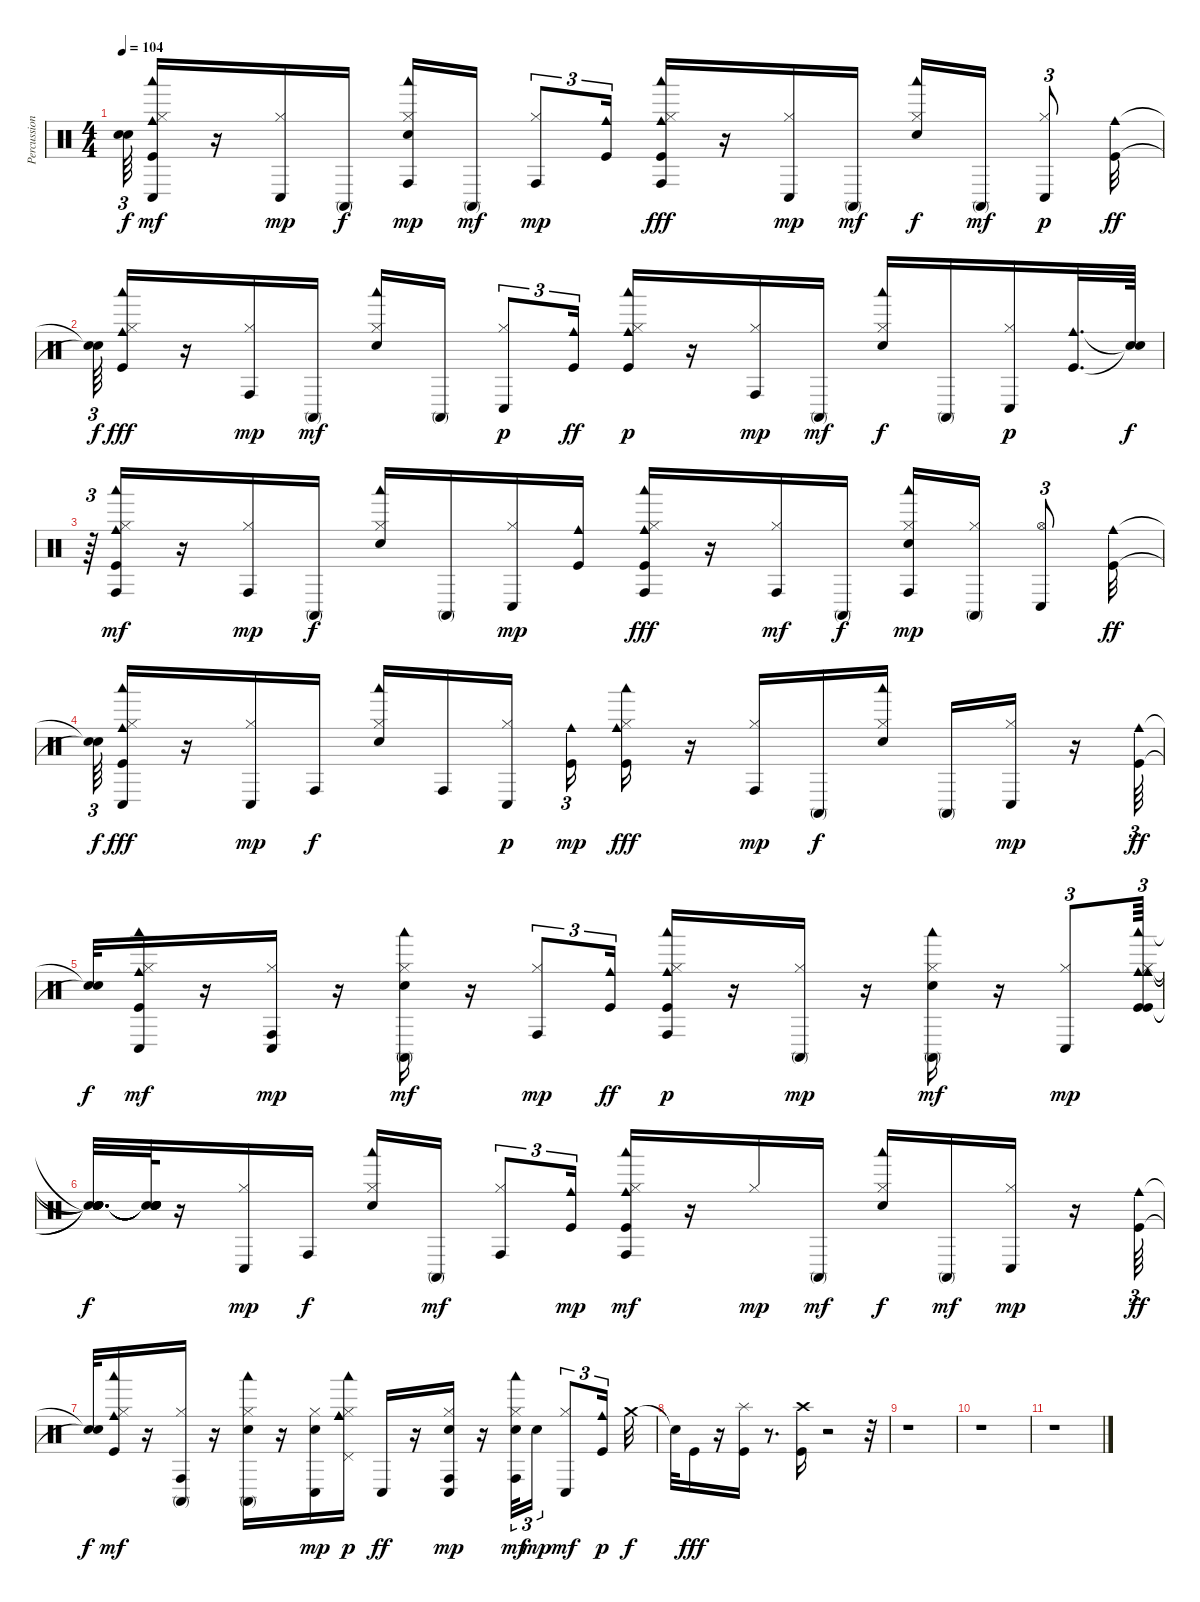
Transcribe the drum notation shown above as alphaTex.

\track ("Percussions (drums + hihats)" "Percussion") {instrument percussion}
\staff {score}
\articulation defaults
\ts (4 4)
\tempo 104
\clef neutral
\ks c
("Snare (hit)"{t} "Snare (hit)"{t}).64{tu (3 2) dy f} ("Cowbell medium (hit)" "Kick (hit)" "Woodblock low (hit)" "Hi-Hat (closed)" "Conga low (hit)").16{dy mf} r.16 ("Hi-Hat (closed)" "Conga low (hit)").16{dy mp} "Conga high (mute)".16{dy f} ("Woodblock low (hit)" "Conga high (hit)" "Electric Snare (hit)" "Hi-Hat (closed)").16{dy mp} "Conga high (mute)".16{dy mf} ("Conga high (hit)" "Hi-Hat (closed)").8{tu (3 2) dy mp} ("Kick (hit)" "Cowbell medium (hit)").16{tu (3 2)} ("Conga high (hit)" "Woodblock low (hit)" "Cowbell medium (hit)" "Hi-Hat (closed)" "Kick (hit)").16{dy fff} r.16 ("Conga low (hit)" "Hi-Hat (closed)").16{dy mp} "Conga high (mute)".16{dy mf} ("Hi-Hat (closed)" "Woodblock low (hit)" "Electric Snare (hit)").16{dy f} "Conga high (mute)".16{dy mf} ("Hi-Hat (closed)" "Conga low (hit)").8{tu (3 2) dy p} ("Cowbell medium (hit)" "Kick (hit)").32{dy ff} |
("Snare (hit)"{t} "Snare (hit)"{t}).64{tu (3 2) dy f} ("Cowbell medium (hit)" "Woodblock low (hit)" "Hi-Hat (closed)" "Kick (hit)").16{dy fff} r.16 ("Hi-Hat (closed)" "Conga high (hit)").16{dy mp} "Conga high (mute)".16{dy mf} ("Woodblock low (hit)" "Electric Snare (hit)" "Hi-Hat (closed)").16 "Conga high (mute)".16 ("Conga low (hit)" "Hi-Hat (closed)").8{tu (3 2) dy p} ("Cowbell medium (hit)" "Kick (hit)").16{tu (3 2) dy ff} ("Hi-Hat (closed)" "Woodblock low (hit)" "Kick (hit)" "Cowbell medium (hit)").16{dy p} r.16 ("Hi-Hat (closed)" "Conga high (hit)").16{dy mp} "Conga high (mute)".16{dy mf} ("Woodblock low (hit)" "Hi-Hat (closed)" "Electric Snare (hit)").16{dy f} "Conga high (mute)".16 ("Hi-Hat (closed)" "Conga low (hit)").16{dy p} ("Kick (hit)" "Cowbell medium (hit)").32{d} ("Snare (hit)"{t} "Snare (hit)"{t}).64{dy f} |
r.64{tu (3 2)} ("Woodblock low (hit)" "Kick (hit)" "Cowbell medium (hit)" "Hi-Hat (closed)" "Conga high (hit)").16{dy mf} r.16 ("Hi-Hat (closed)" "Conga high (hit)").16{dy mp} "Conga high (mute)".16{dy f} ("Hi-Hat (closed)" "Electric Snare (hit)" "Woodblock low (hit)").16 "Conga high (mute)".16 ("Hi-Hat (closed)" "Conga low (hit)").16{dy mp} ("Kick (hit)" "Cowbell medium (hit)").16 ("Hi-Hat (closed)" "Cowbell medium (hit)" "Kick (hit)" "Conga high (hit)" "Woodblock low (hit)").16{dy fff} r.16 ("Hi-Hat (closed)" "Conga high (hit)").16{dy mf} "Conga high (mute)".16{dy f} ("Electric Snare (hit)" "Woodblock low (hit)" "Conga high (hit)" "Hi-Hat (closed)").16{dy mp} ("Conga high (mute)" "Hi-Hat (closed)").16 ("Hi-Hat (open)" "Conga low (hit)").8{tu (3 2)} ("Cowbell medium (hit)" "Kick (hit)").32{dy ff} |
("Snare (hit)"{t} "Snare (hit)"{t}).64{tu (3 2) dy f} ("Hi-Hat (closed)" "Cowbell medium (hit)" "Kick (hit)" "Conga low (hit)" "Woodblock low (hit)").16{dy fff} r.16 ("Hi-Hat (closed)" "Conga low (hit)").16{dy mp} "Conga high (hit)".16{dy f} ("Electric Snare (hit)" "Woodblock low (hit)" "Hi-Hat (closed)").16 "Conga high (hit)".16 ("Hi-Hat (closed)" "Conga low (hit)").16{dy p} ("Kick (hit)" "Cowbell medium (hit)").16{tu (3 2) dy mp} ("Cowbell medium (hit)" "Hi-Hat (closed)" "Woodblock low (hit)" "Kick (hit)").16{dy fff} r.16 ("Hi-Hat (closed)" "Conga high (hit)").16{dy mp} "Conga high (mute)".16{dy f} ("Woodblock low (hit)" "Electric Snare (hit)" "Hi-Hat (closed)").16 "Conga high (mute)".16 ("Hi-Hat (closed)" "Conga low (hit)").16{dy mp} r.16 ("Cowbell medium (hit)" "Kick (hit)").64{tu (3 2) dy ff} |
("Snare (hit)"{t} "Snare (hit)"{t}).32{dy f} ("Cowbell medium (hit)" "Kick (hit)" "Woodblock low (hit)" "Hi-Hat (closed)" "Conga low (hit)").16{dy mf} r.16 ("Conga low (hit)" "Hi-Hat (closed)" "Conga high (hit)").16{dy mp} r.16 ("Hi-Hat (closed)" "Electric Snare (hit)" "Woodblock low (hit)" "Conga high (mute)").16{dy mf} r.16 ("Conga high (hit)" "Hi-Hat (closed)").8{tu (3 2) dy mp} ("Cowbell medium (hit)" "Kick (hit)").16{tu (3 2) dy ff} ("Woodblock low (hit)" "Kick (hit)" "Conga high (hit)" "Hi-Hat (closed)" "Cowbell medium (hit)").16{dy p} r.16 ("Hi-Hat (closed)" "Conga high (mute)").16{dy mp} r.16 ("Electric Snare (hit)" "Hi-Hat (closed)" "Woodblock low (hit)" "Conga high (mute)").16{dy mf} r.16 ("Conga low (hit)" "Hi-Hat (closed)").8{tu (3 2) dy mp} ("Kick (hit)" "Cowbell medium (hit)" "Woodblock low (hit)" "Kick (hit)" "Hi-Hat (closed)" "Cowbell medium (hit)").64{tu (3 2)} |
("Snare (hit)"{t} "Snare (hit)"{t} "Snare (hit)"{t} "Snare (hit)"{t} "Snare (hit)"{t} "Snare (hit)"{t}).32{d dy f} ("Snare (hit)"{t} "Snare (hit)"{t} "Snare (hit)"{t} "Snare (hit)"{t} "Snare (hit)"{t} "Snare (hit)"{t}).64 r.16 ("Conga low (hit)" "Hi-Hat (closed)").16{dy mp} "Conga high (hit)".16{dy f} ("Electric Snare (hit)" "Woodblock low (hit)" "Hi-Hat (closed)").16 "Conga high (mute)".16{dy mf} ("Hi-Hat (closed)" "Conga high (hit)").8{tu (3 2)} ("Kick (hit)" "Cowbell medium (hit)").16{tu (3 2) dy mp} ("Conga high (hit)" "Kick (hit)" "Woodblock low (hit)" "Cowbell medium (hit)" "Hi-Hat (closed)").16{dy mf} r.16 "Hi-Hat (closed)".16{dy mp} "Conga high (mute)".16{dy mf} ("Hi-Hat (closed)" "Woodblock low (hit)" "Electric Snare (hit)").16{dy f} "Conga high (mute)".16{dy mf} ("Hi-Hat (closed)" "Conga low (hit)").16{dy mp} r.16 ("Cowbell medium (hit)" "Kick (hit)").64{tu (3 2) dy ff} |
("Snare (hit)"{t} "Snare (hit)"{t}).32{dy f} ("Kick (hit)" "Woodblock low (hit)" "Cowbell medium (hit)" "Hi-Hat (closed)").16{dy mf} r.16 ("Hi-Hat (closed)" "Conga high (hit)" "Conga high (mute)").16 r.16 ("Hi-Hat (closed)" "Woodblock low (hit)" "Electric Snare (hit)" "Conga high (mute)").16 r.16 ("Hi-Hat (closed)" "Electric Snare (hit)" "Conga low (hit)").16{dy mp} ("Cowbell medium (hit)" "Woodblock low (hit)" "Hi-Hat (closed)" "Pedal Hi-Hat (hit)" "Cowbell medium (hit)").16{dy p} "Conga low (hit)".16{dy ff} r.16 ("Hi-Hat (closed)" "Conga low (hit)" "Electric Snare (hit)" "Conga high (hit)").16{dy mp} r.16 ("Electric Snare (hit)" "Hi-Hat (closed)" "Woodblock low (hit)" "Conga high (hit)").32{tu (3 2) dy mf} "Electric Snare (hit)".16{tu (3 2) dy mp} ("Conga low (hit)" "Hi-Hat (closed)").8{tu (3 2) dy mf} ("Kick (hit)" "Cowbell medium (hit)").16{tu (3 2) dy p} "Crash medium (hit)".32{dy f} |
"Snare (hit)"{t}.32 "Kick (hit)".16{dy fff} r.16 ("Kick (hit)" "Splash (hit)").16 r.8{d} ("Crash high (hit)" "Kick (hit)").16 r.2 r.32 |
r.1 |
r.1 |
r.1
